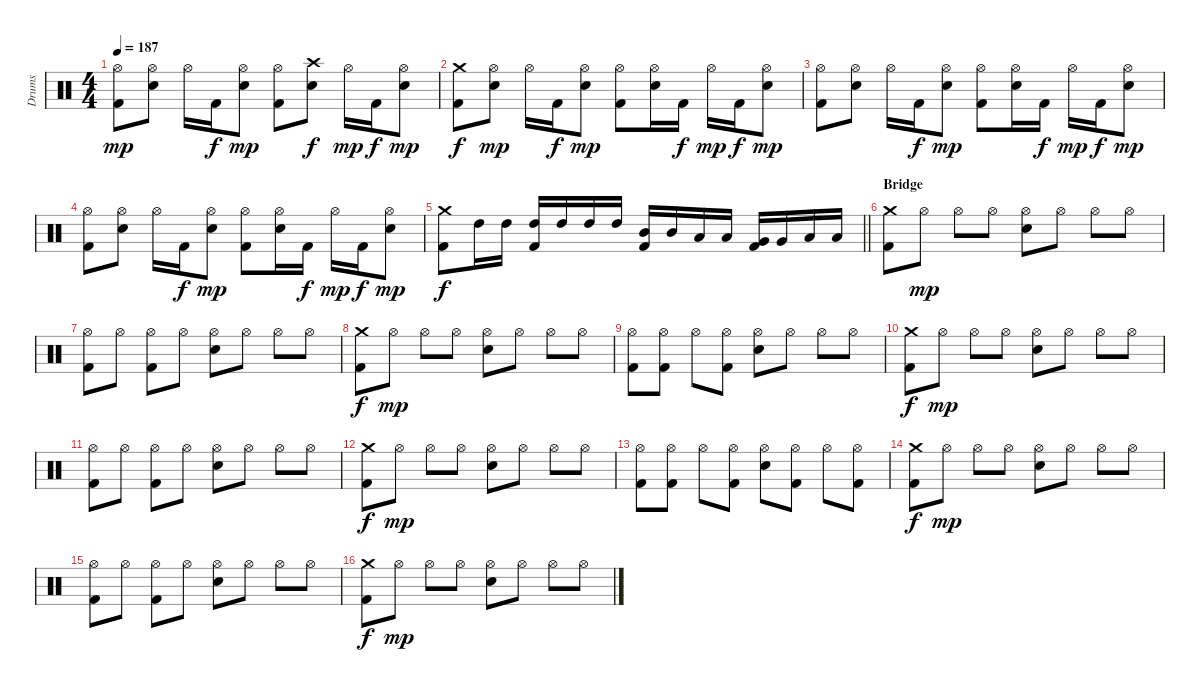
\track ("Drums" "Drums") {instrument percussion}
\staff {score}
\articulation defaults
\ts (4 4)
\tempo 187
\clef neutral
\ks c
("Hi-Hat (open)" "Kick (hit) 2").8{dy mp} ("Hi-Hat (open)" "Snare (hit) 2").8 "Hi-Hat (open)".16 "Kick (hit) 2".16{dy f} ("Hi-Hat (open)" "Snare (hit) 2").8{dy mp} ("Hi-Hat (open)" "Kick (hit) 2").8 ("Crash high (hit)" "Snare (hit) 2").8{dy f} "Hi-Hat (open)".16{dy mp} "Kick (hit) 2".16{dy f} ("Hi-Hat (open)" "Snare (hit) 2").8{dy mp} |
("Crash medium (hit)" "Kick (hit) 2").8{dy f} ("Hi-Hat (open)" "Snare (hit) 2").8{dy mp} "Hi-Hat (open)".16 "Kick (hit) 2".16{dy f} ("Hi-Hat (open)" "Snare (hit) 2").8{dy mp} ("Hi-Hat (open)" "Kick (hit) 2").8 ("Hi-Hat (open)" "Snare (hit) 2").16 "Kick (hit) 2".16{dy f} "Hi-Hat (open)".16{dy mp} "Kick (hit) 2".16{dy f} ("Hi-Hat (open)" "Snare (hit) 2").8{dy mp} |
("Hi-Hat (open)" "Kick (hit) 2").8 ("Hi-Hat (open)" "Snare (hit) 2").8 "Hi-Hat (open)".16 "Kick (hit) 2".16{dy f} ("Hi-Hat (open)" "Snare (hit) 2").8{dy mp} ("Hi-Hat (open)" "Kick (hit) 2").8 ("Hi-Hat (open)" "Snare (hit) 2").16 "Kick (hit) 2".16{dy f} "Hi-Hat (open)".16{dy mp} "Kick (hit) 2".16{dy f} ("Hi-Hat (open)" "Snare (hit) 2").8{dy mp} |
("Hi-Hat (open)" "Kick (hit) 2").8 ("Hi-Hat (open)" "Snare (hit) 2").8 "Hi-Hat (open)".16 "Kick (hit) 2".16{dy f} ("Hi-Hat (open)" "Snare (hit) 2").8{dy mp} ("Hi-Hat (open)" "Kick (hit) 2").8 ("Hi-Hat (open)" "Snare (hit) 2").16 "Kick (hit) 2".16{dy f} "Hi-Hat (open)".16{dy mp} "Kick (hit) 2".16{dy f} ("Hi-Hat (open)" "Snare (hit) 2").8{dy mp} |
\barLineRight lightlight
("Crash medium (hit)" "Kick (hit) 2").8{dy f} "High Tom (hit)".16 "High Tom (hit)".16 ("High Tom (hit)" "Kick (hit) 2").16 "High Tom (hit)".16 "High Tom (hit)".16 "High Tom (hit)".16 ("Mid Tom (hit)" "Kick (hit) 2").16 "Mid Tom (hit)".16 "Low Tom (hit)".16 "Low Tom (hit)".16 ("Very Low Tom (hit)" "Kick (hit) 2").16 "Very Low Tom (hit)".16 "Low Floor Tom (hit)".16 "Low Floor Tom (hit)".16 |
\section ("" "Bridge")
("Crash medium (hit)" "Kick (hit) 2").8 "Hi-Hat (open)".8{dy mp} "Hi-Hat (open)".8 "Hi-Hat (open)".8 ("Hi-Hat (open)" "Snare (hit) 2").8 "Hi-Hat (open)".8 "Hi-Hat (open)".8 "Hi-Hat (open)".8 |
("Hi-Hat (open)" "Kick (hit) 2").8 "Hi-Hat (open)".8 ("Hi-Hat (open)" "Kick (hit) 2").8 "Hi-Hat (open)".8 ("Hi-Hat (open)" "Snare (hit) 2").8 "Hi-Hat (open)".8 "Hi-Hat (open)".8 "Hi-Hat (open)".8 |
("Crash medium (hit)" "Kick (hit) 2").8{dy f} "Hi-Hat (open)".8{dy mp} "Hi-Hat (open)".8 "Hi-Hat (open)".8 ("Hi-Hat (open)" "Snare (hit) 2").8 "Hi-Hat (open)".8 "Hi-Hat (open)".8 "Hi-Hat (open)".8 |
("Hi-Hat (open)" "Kick (hit) 2").8 ("Hi-Hat (open)" "Kick (hit) 2").8 "Hi-Hat (open)".8 ("Hi-Hat (open)" "Kick (hit) 2").8 ("Hi-Hat (open)" "Snare (hit) 2").8 "Hi-Hat (open)".8 "Hi-Hat (open)".8 "Hi-Hat (open)".8 |
("Crash medium (hit)" "Kick (hit) 2").8{dy f} "Hi-Hat (open)".8{dy mp} "Hi-Hat (open)".8 "Hi-Hat (open)".8 ("Hi-Hat (open)" "Snare (hit) 2").8 "Hi-Hat (open)".8 "Hi-Hat (open)".8 "Hi-Hat (open)".8 |
("Hi-Hat (open)" "Kick (hit) 2").8 "Hi-Hat (open)".8 ("Hi-Hat (open)" "Kick (hit) 2").8 "Hi-Hat (open)".8 ("Hi-Hat (open)" "Snare (hit) 2").8 "Hi-Hat (open)".8 "Hi-Hat (open)".8 "Hi-Hat (open)".8 |
("Crash medium (hit)" "Kick (hit) 2").8{dy f} "Hi-Hat (open)".8{dy mp} "Hi-Hat (open)".8 "Hi-Hat (open)".8 ("Hi-Hat (open)" "Snare (hit) 2").8 "Hi-Hat (open)".8 "Hi-Hat (open)".8 "Hi-Hat (open)".8 |
("Hi-Hat (open)" "Kick (hit) 2").8 ("Hi-Hat (open)" "Kick (hit) 2").8 "Hi-Hat (open)".8 ("Hi-Hat (open)" "Kick (hit) 2").8 ("Hi-Hat (open)" "Snare (hit) 2").8 ("Hi-Hat (open)" "Kick (hit) 2").8 "Hi-Hat (open)".8 ("Hi-Hat (open)" "Kick (hit) 2").8 |
("Crash medium (hit)" "Kick (hit) 2").8{dy f} "Hi-Hat (open)".8{dy mp} "Hi-Hat (open)".8 "Hi-Hat (open)".8 ("Hi-Hat (open)" "Snare (hit) 2").8 "Hi-Hat (open)".8 "Hi-Hat (open)".8 "Hi-Hat (open)".8 |
("Hi-Hat (open)" "Kick (hit) 2").8 "Hi-Hat (open)".8 ("Hi-Hat (open)" "Kick (hit) 2").8 "Hi-Hat (open)".8 ("Hi-Hat (open)" "Snare (hit) 2").8 "Hi-Hat (open)".8 "Hi-Hat (open)".8 "Hi-Hat (open)".8 |
("Crash medium (hit)" "Kick (hit) 2").8{dy f} "Hi-Hat (open)".8{dy mp} "Hi-Hat (open)".8 "Hi-Hat (open)".8 ("Hi-Hat (open)" "Snare (hit) 2").8 "Hi-Hat (open)".8 "Hi-Hat (open)".8 "Hi-Hat (open)".8
